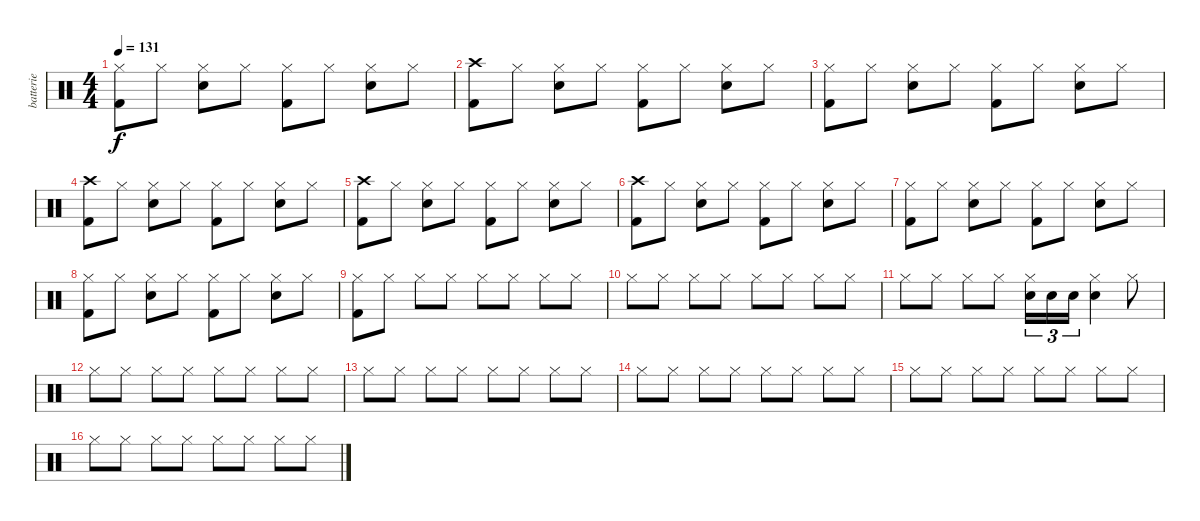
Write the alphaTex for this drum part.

\track ("batterie" "batterie") {instrument percussion}
\staff {score}
\articulation defaults
\ts (4 4)
\tempo 131
\clef neutral
\ks c
("Hi-Hat (closed)" "Kick (hit) 2").8{dy f} "Hi-Hat (closed)".8 ("Hi-Hat (closed)" "Electric Snare (hit)").8 "Hi-Hat (closed)".8 ("Hi-Hat (closed)" "Kick (hit) 2").8 "Hi-Hat (closed)".8 ("Hi-Hat (closed)" "Electric Snare (hit)").8 "Hi-Hat (closed)".8 |
("Crash high (hit)" "Kick (hit) 2").8 "Hi-Hat (closed)".8 ("Hi-Hat (closed)" "Electric Snare (hit)").8 "Hi-Hat (closed)".8 ("Hi-Hat (closed)" "Kick (hit) 2").8 "Hi-Hat (closed)".8 ("Hi-Hat (closed)" "Electric Snare (hit)").8 "Hi-Hat (closed)".8 |
("Hi-Hat (closed)" "Kick (hit) 2").8 "Hi-Hat (closed)".8 ("Hi-Hat (closed)" "Electric Snare (hit)").8 "Hi-Hat (closed)".8 ("Hi-Hat (closed)" "Kick (hit) 2").8 "Hi-Hat (closed)".8 ("Hi-Hat (closed)" "Electric Snare (hit)").8 "Hi-Hat (closed)".8 |
("Crash high (hit)" "Kick (hit) 2").8 "Hi-Hat (closed)".8 ("Hi-Hat (closed)" "Electric Snare (hit)").8 "Hi-Hat (closed)".8 ("Hi-Hat (closed)" "Kick (hit) 2").8 "Hi-Hat (closed)".8 ("Hi-Hat (closed)" "Electric Snare (hit)").8 "Hi-Hat (closed)".8 |
("Crash high (hit)" "Kick (hit) 2").8 "Hi-Hat (closed)".8 ("Hi-Hat (closed)" "Electric Snare (hit)").8 "Hi-Hat (closed)".8 ("Hi-Hat (closed)" "Kick (hit) 2").8 "Hi-Hat (closed)".8 ("Hi-Hat (closed)" "Electric Snare (hit)").8 "Hi-Hat (closed)".8 |
("Crash high (hit)" "Kick (hit) 2").8 "Hi-Hat (closed)".8 ("Hi-Hat (closed)" "Electric Snare (hit)").8 "Hi-Hat (closed)".8 ("Hi-Hat (closed)" "Kick (hit) 2").8 "Hi-Hat (closed)".8 ("Hi-Hat (closed)" "Electric Snare (hit)").8 "Hi-Hat (closed)".8 |
("Hi-Hat (closed)" "Kick (hit) 2").8 "Hi-Hat (closed)".8 ("Hi-Hat (closed)" "Electric Snare (hit)").8 "Hi-Hat (closed)".8 ("Hi-Hat (closed)" "Kick (hit) 2").8 "Hi-Hat (closed)".8 ("Hi-Hat (closed)" "Electric Snare (hit)").8 "Hi-Hat (closed)".8 |
("Hi-Hat (closed)" "Kick (hit) 2").8 "Hi-Hat (closed)".8 ("Hi-Hat (closed)" "Electric Snare (hit)").8 "Hi-Hat (closed)".8 ("Hi-Hat (closed)" "Kick (hit) 2").8 "Hi-Hat (closed)".8 ("Hi-Hat (closed)" "Electric Snare (hit)").8 "Hi-Hat (closed)".8 |
("Hi-Hat (closed)" "Kick (hit) 2").8 "Hi-Hat (closed)".8 "Hi-Hat (closed)".8 "Hi-Hat (closed)".8 "Hi-Hat (closed)".8 "Hi-Hat (closed)".8 "Hi-Hat (closed)".8 "Hi-Hat (closed)".8 |
"Hi-Hat (closed)".8 "Hi-Hat (closed)".8 "Hi-Hat (closed)".8 "Hi-Hat (closed)".8 "Hi-Hat (closed)".8 "Hi-Hat (closed)".8 "Hi-Hat (closed)".8 "Hi-Hat (closed)".8 |
"Hi-Hat (closed)".8 "Hi-Hat (closed)".8 "Hi-Hat (closed)".8 "Hi-Hat (closed)".8 ("Hi-Hat (closed)" "Electric Snare (hit)").16{tu (3 2)} "Electric Snare (hit)".16{tu (3 2)} "Electric Snare (hit)".16{tu (3 2)} ("Hi-Hat (closed)" "Electric Snare (hit)").4 "Hi-Hat (closed)".8 |
"Hi-Hat (closed)".8 "Hi-Hat (closed)".8 "Hi-Hat (closed)".8 "Hi-Hat (closed)".8 "Hi-Hat (closed)".8 "Hi-Hat (closed)".8 "Hi-Hat (closed)".8 "Hi-Hat (closed)".8 |
"Hi-Hat (closed)".8 "Hi-Hat (closed)".8 "Hi-Hat (closed)".8 "Hi-Hat (closed)".8 "Hi-Hat (closed)".8 "Hi-Hat (closed)".8 "Hi-Hat (closed)".8 "Hi-Hat (closed)".8 |
"Hi-Hat (closed)".8 "Hi-Hat (closed)".8 "Hi-Hat (closed)".8 "Hi-Hat (closed)".8 "Hi-Hat (closed)".8 "Hi-Hat (closed)".8 "Hi-Hat (closed)".8 "Hi-Hat (closed)".8 |
"Hi-Hat (closed)".8 "Hi-Hat (closed)".8 "Hi-Hat (closed)".8 "Hi-Hat (closed)".8 "Hi-Hat (closed)".8 "Hi-Hat (closed)".8 "Hi-Hat (closed)".8 "Hi-Hat (closed)".8 |
"Hi-Hat (closed)".8 "Hi-Hat (closed)".8 "Hi-Hat (closed)".8 "Hi-Hat (closed)".8 "Hi-Hat (closed)".8 "Hi-Hat (closed)".8 "Hi-Hat (closed)".8 "Hi-Hat (closed)".8
